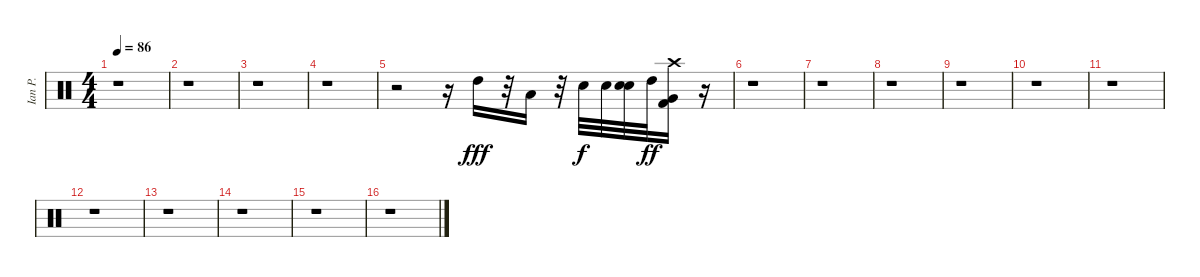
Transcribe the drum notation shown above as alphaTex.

\track ("Ian P." "Ian P.") {instrument percussion}
\staff {score}
\articulation defaults
\ts (4 4)
\tempo 86
\clef neutral
\ks c
r.1{dy fff} |
r.1 |
r.1 |
r.1 |
r.2 r.16 "High Tom (hit)".16 r.32 "Low Tom (hit)".16 r.32 "Snare (hit) 2".32{dy f} "Snare (hit) 2".32 ("Snare (hit) 2" "Snare (hit) 2").32 "High Tom (hit)".32{dy ff} ("Crash high (hit)" "Kick (hit) 2" "Very Low Tom (hit)").16 r.16 |
r.1 |
r.1 |
r.1 |
r.1 |
r.1 |
r.1 |
r.1 |
r.1 |
r.1 |
r.1 |
r.1
